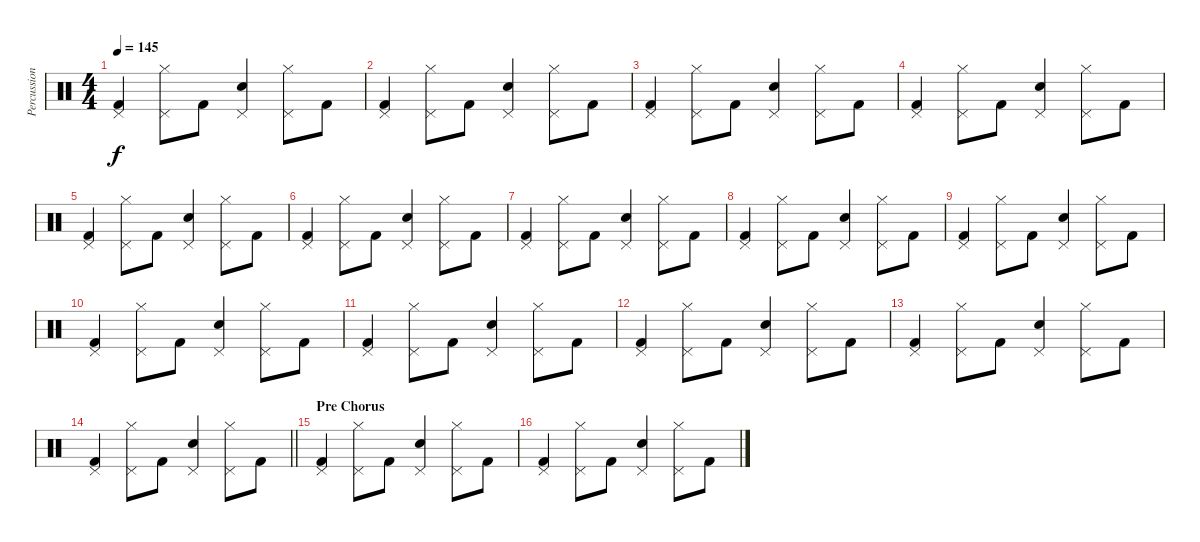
\track ("Percussion" "Percussion") {instrument percussion}
\staff {score}
\articulation defaults
\ts (4 4)
\tempo 145
\clef neutral
\ks c
("Kick (hit) 2" "Pedal Hi-Hat (hit)").4{dy f} ("Hi-Hat (closed)" "Pedal Hi-Hat (hit)").8 "Kick (hit) 2".8 ("Snare (hit) 2" "Pedal Hi-Hat (hit)").4 ("Hi-Hat (closed)" "Pedal Hi-Hat (hit)").8 "Kick (hit) 2".8 |
("Kick (hit) 2" "Pedal Hi-Hat (hit)").4 ("Hi-Hat (closed)" "Pedal Hi-Hat (hit)").8 "Kick (hit) 2".8 ("Snare (hit) 2" "Pedal Hi-Hat (hit)").4 ("Hi-Hat (closed)" "Pedal Hi-Hat (hit)").8 "Kick (hit) 2".8 |
("Kick (hit) 2" "Pedal Hi-Hat (hit)").4 ("Hi-Hat (closed)" "Pedal Hi-Hat (hit)").8 "Kick (hit) 2".8 ("Snare (hit) 2" "Pedal Hi-Hat (hit)").4 ("Hi-Hat (closed)" "Pedal Hi-Hat (hit)").8 "Kick (hit) 2".8 |
("Kick (hit) 2" "Pedal Hi-Hat (hit)").4 ("Hi-Hat (closed)" "Pedal Hi-Hat (hit)").8 "Kick (hit) 2".8 ("Snare (hit) 2" "Pedal Hi-Hat (hit)").4 ("Hi-Hat (closed)" "Pedal Hi-Hat (hit)").8 "Kick (hit) 2".8 |
("Kick (hit) 2" "Pedal Hi-Hat (hit)").4 ("Hi-Hat (closed)" "Pedal Hi-Hat (hit)").8 "Kick (hit) 2".8 ("Snare (hit) 2" "Pedal Hi-Hat (hit)").4 ("Hi-Hat (closed)" "Pedal Hi-Hat (hit)").8 "Kick (hit) 2".8 |
("Kick (hit) 2" "Pedal Hi-Hat (hit)").4 ("Hi-Hat (closed)" "Pedal Hi-Hat (hit)").8 "Kick (hit) 2".8 ("Snare (hit) 2" "Pedal Hi-Hat (hit)").4 ("Hi-Hat (closed)" "Pedal Hi-Hat (hit)").8 "Kick (hit) 2".8 |
("Kick (hit) 2" "Pedal Hi-Hat (hit)").4 ("Hi-Hat (closed)" "Pedal Hi-Hat (hit)").8 "Kick (hit) 2".8 ("Snare (hit) 2" "Pedal Hi-Hat (hit)").4 ("Hi-Hat (closed)" "Pedal Hi-Hat (hit)").8 "Kick (hit) 2".8 |
("Kick (hit) 2" "Pedal Hi-Hat (hit)").4 ("Hi-Hat (closed)" "Pedal Hi-Hat (hit)").8 "Kick (hit) 2".8 ("Snare (hit) 2" "Pedal Hi-Hat (hit)").4 ("Hi-Hat (closed)" "Pedal Hi-Hat (hit)").8 "Kick (hit) 2".8 |
("Kick (hit) 2" "Pedal Hi-Hat (hit)").4 ("Hi-Hat (closed)" "Pedal Hi-Hat (hit)").8 "Kick (hit) 2".8 ("Snare (hit) 2" "Pedal Hi-Hat (hit)").4 ("Hi-Hat (closed)" "Pedal Hi-Hat (hit)").8 "Kick (hit) 2".8 |
("Kick (hit) 2" "Pedal Hi-Hat (hit)").4 ("Hi-Hat (closed)" "Pedal Hi-Hat (hit)").8 "Kick (hit) 2".8 ("Snare (hit) 2" "Pedal Hi-Hat (hit)").4 ("Hi-Hat (closed)" "Pedal Hi-Hat (hit)").8 "Kick (hit) 2".8 |
("Kick (hit) 2" "Pedal Hi-Hat (hit)").4 ("Hi-Hat (closed)" "Pedal Hi-Hat (hit)").8 "Kick (hit) 2".8 ("Snare (hit) 2" "Pedal Hi-Hat (hit)").4 ("Hi-Hat (closed)" "Pedal Hi-Hat (hit)").8 "Kick (hit) 2".8 |
("Kick (hit) 2" "Pedal Hi-Hat (hit)").4 ("Hi-Hat (closed)" "Pedal Hi-Hat (hit)").8 "Kick (hit) 2".8 ("Snare (hit) 2" "Pedal Hi-Hat (hit)").4 ("Hi-Hat (closed)" "Pedal Hi-Hat (hit)").8 "Kick (hit) 2".8 |
("Kick (hit) 2" "Pedal Hi-Hat (hit)").4 ("Hi-Hat (closed)" "Pedal Hi-Hat (hit)").8 "Kick (hit) 2".8 ("Snare (hit) 2" "Pedal Hi-Hat (hit)").4 ("Hi-Hat (closed)" "Pedal Hi-Hat (hit)").8 "Kick (hit) 2".8 |
\barLineRight lightlight
("Kick (hit) 2" "Pedal Hi-Hat (hit)").4 ("Hi-Hat (closed)" "Pedal Hi-Hat (hit)").8 "Kick (hit) 2".8 ("Snare (hit) 2" "Pedal Hi-Hat (hit)").4 ("Hi-Hat (closed)" "Pedal Hi-Hat (hit)").8 "Kick (hit) 2".8 |
\section ("" "Pre Chorus")
("Kick (hit) 2" "Pedal Hi-Hat (hit)").4 ("Hi-Hat (closed)" "Pedal Hi-Hat (hit)").8 "Kick (hit) 2".8 ("Snare (hit) 2" "Pedal Hi-Hat (hit)").4 ("Hi-Hat (closed)" "Pedal Hi-Hat (hit)").8 "Kick (hit) 2".8 |
("Kick (hit) 2" "Pedal Hi-Hat (hit)").4 ("Hi-Hat (closed)" "Pedal Hi-Hat (hit)").8 "Kick (hit) 2".8 ("Snare (hit) 2" "Pedal Hi-Hat (hit)").4 ("Hi-Hat (closed)" "Pedal Hi-Hat (hit)").8 "Kick (hit) 2".8
